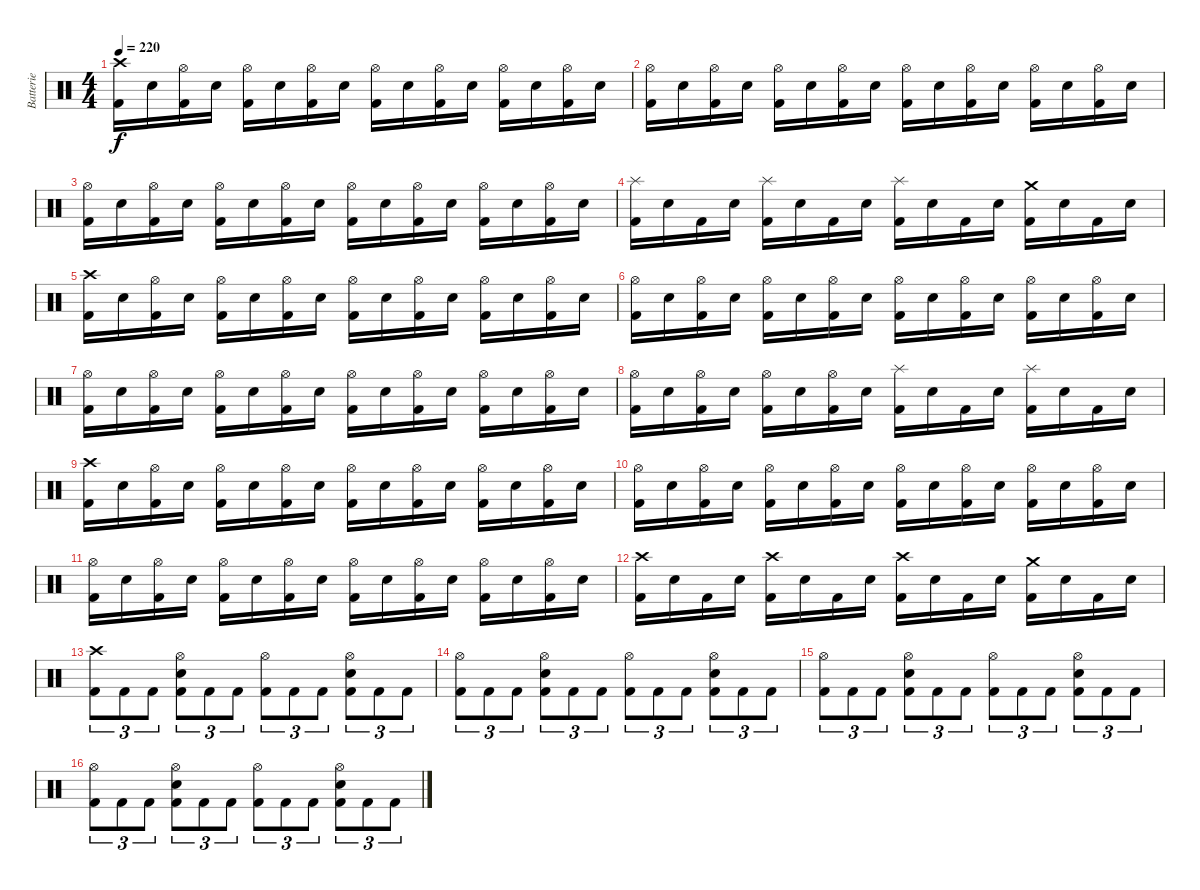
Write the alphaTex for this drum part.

\track ("Batterie" "Batterie") {instrument percussion}
\staff {score}
\articulation defaults
\ts (4 4)
\tempo 220
\clef neutral
\ks c
("Crash high (hit)" "Kick (hit) 2").16{dy f} "Electric Snare (hit)".16 ("Hi-Hat (open)" "Kick (hit) 2").16 "Electric Snare (hit)".16 ("Hi-Hat (open)" "Kick (hit) 2").16 "Electric Snare (hit)".16 ("Hi-Hat (open)" "Kick (hit) 2").16 "Electric Snare (hit)".16 ("Hi-Hat (open)" "Kick (hit) 2").16 "Electric Snare (hit)".16 ("Hi-Hat (open)" "Kick (hit) 2").16 "Electric Snare (hit)".16 ("Hi-Hat (open)" "Kick (hit) 2").16 "Electric Snare (hit)".16 ("Hi-Hat (open)" "Kick (hit) 2").16 "Electric Snare (hit)".16 |
("Hi-Hat (open)" "Kick (hit) 2").16 "Electric Snare (hit)".16 ("Hi-Hat (open)" "Kick (hit) 2").16 "Electric Snare (hit)".16 ("Hi-Hat (open)" "Kick (hit) 2").16 "Electric Snare (hit)".16 ("Hi-Hat (open)" "Kick (hit) 2").16 "Electric Snare (hit)".16 ("Hi-Hat (open)" "Kick (hit) 2").16 "Electric Snare (hit)".16 ("Hi-Hat (open)" "Kick (hit) 2").16 "Electric Snare (hit)".16 ("Hi-Hat (open)" "Kick (hit) 2").16 "Electric Snare (hit)".16 ("Hi-Hat (open)" "Kick (hit) 2").16 "Electric Snare (hit)".16 |
("Hi-Hat (open)" "Kick (hit) 2").16 "Electric Snare (hit)".16 ("Hi-Hat (open)" "Kick (hit) 2").16 "Electric Snare (hit)".16 ("Hi-Hat (open)" "Kick (hit) 2").16 "Electric Snare (hit)".16 ("Hi-Hat (open)" "Kick (hit) 2").16 "Electric Snare (hit)".16 ("Hi-Hat (open)" "Kick (hit) 2").16 "Electric Snare (hit)".16 ("Hi-Hat (open)" "Kick (hit) 2").16 "Electric Snare (hit)".16 ("Hi-Hat (open)" "Kick (hit) 2").16 "Electric Snare (hit)".16 ("Hi-Hat (open)" "Kick (hit) 2").16 "Electric Snare (hit)".16 |
("Splash (hit)" "Kick (hit) 2").16 "Electric Snare (hit)".16 "Kick (hit) 2".16 "Electric Snare (hit)".16 ("Splash (hit)" "Kick (hit) 2").16 "Electric Snare (hit)".16 "Kick (hit) 2".16 "Electric Snare (hit)".16 ("Splash (hit)" "Kick (hit) 2").16 "Electric Snare (hit)".16 "Kick (hit) 2".16 "Electric Snare (hit)".16 ("Crash medium (hit)" "Kick (hit) 2").16 "Electric Snare (hit)".16 "Kick (hit) 2".16 "Electric Snare (hit)".16 |
("Crash high (hit)" "Kick (hit) 2").16 "Electric Snare (hit)".16 ("Hi-Hat (open)" "Kick (hit) 2").16 "Electric Snare (hit)".16 ("Hi-Hat (open)" "Kick (hit) 2").16 "Electric Snare (hit)".16 ("Hi-Hat (open)" "Kick (hit) 2").16 "Electric Snare (hit)".16 ("Hi-Hat (open)" "Kick (hit) 2").16 "Electric Snare (hit)".16 ("Hi-Hat (open)" "Kick (hit) 2").16 "Electric Snare (hit)".16 ("Hi-Hat (open)" "Kick (hit) 2").16 "Electric Snare (hit)".16 ("Hi-Hat (open)" "Kick (hit) 2").16 "Electric Snare (hit)".16 |
("Hi-Hat (open)" "Kick (hit) 2").16 "Electric Snare (hit)".16 ("Hi-Hat (open)" "Kick (hit) 2").16 "Electric Snare (hit)".16 ("Hi-Hat (open)" "Kick (hit) 2").16 "Electric Snare (hit)".16 ("Hi-Hat (open)" "Kick (hit) 2").16 "Electric Snare (hit)".16 ("Hi-Hat (open)" "Kick (hit) 2").16 "Electric Snare (hit)".16 ("Hi-Hat (open)" "Kick (hit) 2").16 "Electric Snare (hit)".16 ("Hi-Hat (open)" "Kick (hit) 2").16 "Electric Snare (hit)".16 ("Hi-Hat (open)" "Kick (hit) 2").16 "Electric Snare (hit)".16 |
("Hi-Hat (open)" "Kick (hit) 2").16 "Electric Snare (hit)".16 ("Hi-Hat (open)" "Kick (hit) 2").16 "Electric Snare (hit)".16 ("Hi-Hat (open)" "Kick (hit) 2").16 "Electric Snare (hit)".16 ("Hi-Hat (open)" "Kick (hit) 2").16 "Electric Snare (hit)".16 ("Hi-Hat (open)" "Kick (hit) 2").16 "Electric Snare (hit)".16 ("Hi-Hat (open)" "Kick (hit) 2").16 "Electric Snare (hit)".16 ("Hi-Hat (open)" "Kick (hit) 2").16 "Electric Snare (hit)".16 ("Hi-Hat (open)" "Kick (hit) 2").16 "Electric Snare (hit)".16 |
("Hi-Hat (open)" "Kick (hit) 2").16 "Electric Snare (hit)".16 ("Hi-Hat (open)" "Kick (hit) 2").16 "Electric Snare (hit)".16 ("Hi-Hat (open)" "Kick (hit) 2").16 "Electric Snare (hit)".16 ("Hi-Hat (open)" "Kick (hit) 2").16 "Electric Snare (hit)".16 ("Splash (hit)" "Kick (hit) 2").16 "Electric Snare (hit)".16 "Kick (hit) 2".16 "Electric Snare (hit)".16 ("Splash (hit)" "Kick (hit) 2").16 "Electric Snare (hit)".16 "Kick (hit) 2".16 "Electric Snare (hit)".16 |
("Crash high (hit)" "Kick (hit) 2").16 "Electric Snare (hit)".16 ("Hi-Hat (open)" "Kick (hit) 2").16 "Electric Snare (hit)".16 ("Hi-Hat (open)" "Kick (hit) 2").16 "Electric Snare (hit)".16 ("Hi-Hat (open)" "Kick (hit) 2").16 "Electric Snare (hit)".16 ("Hi-Hat (open)" "Kick (hit) 2").16 "Electric Snare (hit)".16 ("Hi-Hat (open)" "Kick (hit) 2").16 "Electric Snare (hit)".16 ("Hi-Hat (open)" "Kick (hit) 2").16 "Electric Snare (hit)".16 ("Hi-Hat (open)" "Kick (hit) 2").16 "Electric Snare (hit)".16 |
("Hi-Hat (open)" "Kick (hit) 2").16 "Electric Snare (hit)".16 ("Hi-Hat (open)" "Kick (hit) 2").16 "Electric Snare (hit)".16 ("Hi-Hat (open)" "Kick (hit) 2").16 "Electric Snare (hit)".16 ("Hi-Hat (open)" "Kick (hit) 2").16 "Electric Snare (hit)".16 ("Hi-Hat (open)" "Kick (hit) 2").16 "Electric Snare (hit)".16 ("Hi-Hat (open)" "Kick (hit) 2").16 "Electric Snare (hit)".16 ("Hi-Hat (open)" "Kick (hit) 2").16 "Electric Snare (hit)".16 ("Hi-Hat (open)" "Kick (hit) 2").16 "Electric Snare (hit)".16 |
("Hi-Hat (open)" "Kick (hit) 2").16 "Electric Snare (hit)".16 ("Hi-Hat (open)" "Kick (hit) 2").16 "Electric Snare (hit)".16 ("Hi-Hat (open)" "Kick (hit) 2").16 "Electric Snare (hit)".16 ("Hi-Hat (open)" "Kick (hit) 2").16 "Electric Snare (hit)".16 ("Hi-Hat (open)" "Kick (hit) 2").16 "Electric Snare (hit)".16 ("Hi-Hat (open)" "Kick (hit) 2").16 "Electric Snare (hit)".16 ("Hi-Hat (open)" "Kick (hit) 2").16 "Electric Snare (hit)".16 ("Hi-Hat (open)" "Kick (hit) 2").16 "Electric Snare (hit)".16 |
("Crash high (hit)" "Kick (hit) 2").16 "Electric Snare (hit)".16 "Kick (hit) 2".16 "Electric Snare (hit)".16 ("Crash high (hit)" "Kick (hit) 2").16 "Electric Snare (hit)".16 "Kick (hit) 2".16 "Electric Snare (hit)".16 ("Crash high (hit)" "Kick (hit) 2").16 "Electric Snare (hit)".16 "Kick (hit) 2".16 "Electric Snare (hit)".16 ("Crash medium (hit)" "Kick (hit) 2").16 "Electric Snare (hit)".16 "Kick (hit) 2".16 "Electric Snare (hit)".16 |
("Crash high (hit)" "Kick (hit) 2").8{tu (3 2)} "Kick (hit) 2".8{tu (3 2)} "Kick (hit) 2".8{tu (3 2)} ("Hi-Hat (open)" "Electric Snare (hit)" "Kick (hit) 2").8{tu (3 2)} "Kick (hit) 2".8{tu (3 2)} "Kick (hit) 2".8{tu (3 2)} ("Hi-Hat (open)" "Kick (hit) 2").8{tu (3 2)} "Kick (hit) 2".8{tu (3 2)} "Kick (hit) 2".8{tu (3 2)} ("Hi-Hat (open)" "Electric Snare (hit)" "Kick (hit) 2").8{tu (3 2)} "Kick (hit) 2".8{tu (3 2)} "Kick (hit) 2".8{tu (3 2)} |
("Hi-Hat (open)" "Kick (hit) 2").8{tu (3 2)} "Kick (hit) 2".8{tu (3 2)} "Kick (hit) 2".8{tu (3 2)} ("Hi-Hat (open)" "Electric Snare (hit)" "Kick (hit) 2").8{tu (3 2)} "Kick (hit) 2".8{tu (3 2)} "Kick (hit) 2".8{tu (3 2)} ("Hi-Hat (open)" "Kick (hit) 2").8{tu (3 2)} "Kick (hit) 2".8{tu (3 2)} "Kick (hit) 2".8{tu (3 2)} ("Hi-Hat (open)" "Electric Snare (hit)" "Kick (hit) 2").8{tu (3 2)} "Kick (hit) 2".8{tu (3 2)} "Kick (hit) 2".8{tu (3 2)} |
("Hi-Hat (open)" "Kick (hit) 2").8{tu (3 2)} "Kick (hit) 2".8{tu (3 2)} "Kick (hit) 2".8{tu (3 2)} ("Hi-Hat (open)" "Electric Snare (hit)" "Kick (hit) 2").8{tu (3 2)} "Kick (hit) 2".8{tu (3 2)} "Kick (hit) 2".8{tu (3 2)} ("Hi-Hat (open)" "Kick (hit) 2").8{tu (3 2)} "Kick (hit) 2".8{tu (3 2)} "Kick (hit) 2".8{tu (3 2)} ("Hi-Hat (open)" "Electric Snare (hit)" "Kick (hit) 2").8{tu (3 2)} "Kick (hit) 2".8{tu (3 2)} "Kick (hit) 2".8{tu (3 2)} |
("Hi-Hat (open)" "Kick (hit) 2").8{tu (3 2)} "Kick (hit) 2".8{tu (3 2)} "Kick (hit) 2".8{tu (3 2)} ("Hi-Hat (open)" "Electric Snare (hit)" "Kick (hit) 2").8{tu (3 2)} "Kick (hit) 2".8{tu (3 2)} "Kick (hit) 2".8{tu (3 2)} ("Hi-Hat (open)" "Kick (hit) 2").8{tu (3 2)} "Kick (hit) 2".8{tu (3 2)} "Kick (hit) 2".8{tu (3 2)} ("Hi-Hat (open)" "Electric Snare (hit)" "Kick (hit) 2").8{tu (3 2)} "Kick (hit) 2".8{tu (3 2)} "Kick (hit) 2".8{tu (3 2)}
